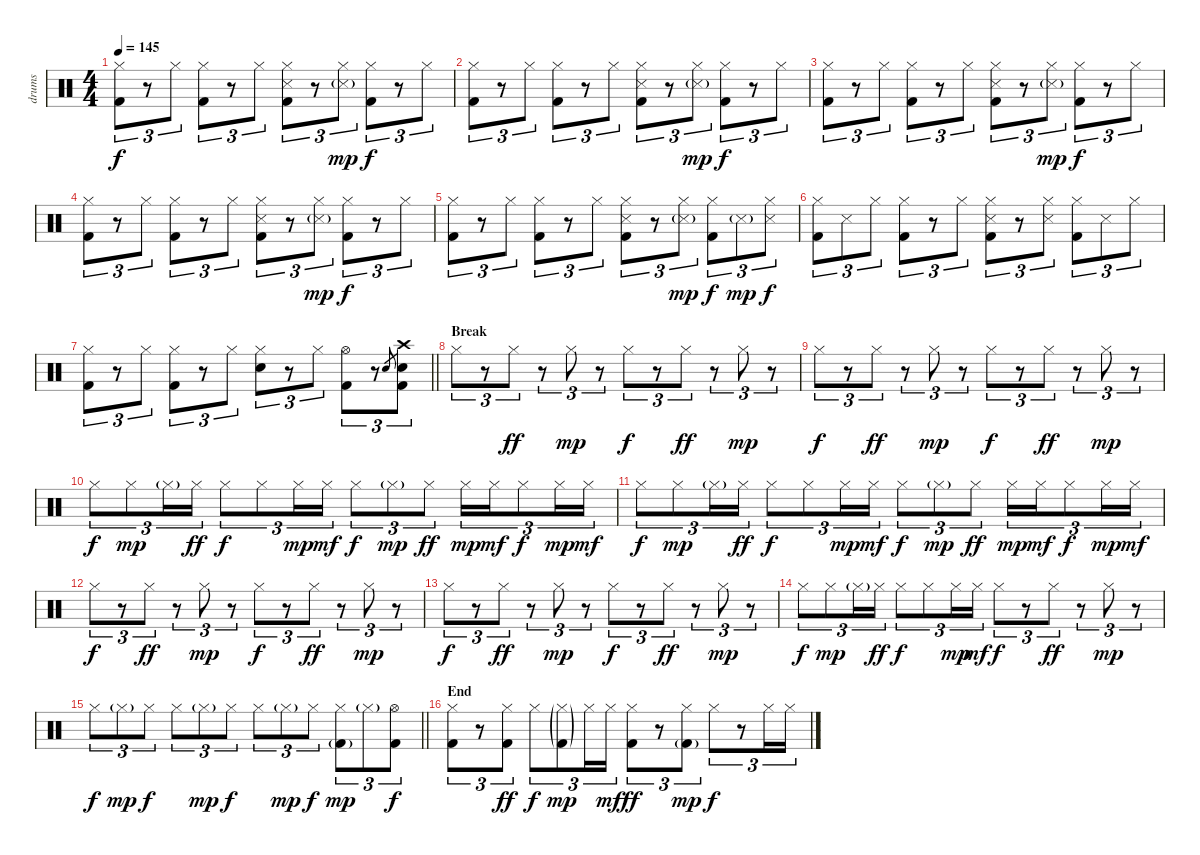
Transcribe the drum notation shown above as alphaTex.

\track ("drums" "drums") {instrument percussion}
\staff {score}
\articulation defaults
\ts (4 4)
\tempo 145
\clef neutral
\ks c
("Hi-Hat (closed)" "Kick (hit) 2").8{tu (3 2) dy f} r.8{tu (3 2)} "Hi-Hat (closed)".8{tu (3 2)} ("Hi-Hat (closed)" "Kick (hit) 2").8{tu (3 2)} r.8{tu (3 2)} "Hi-Hat (closed)".8{tu (3 2)} ("Hi-Hat (closed)" "Snare (side stick) 3" "Kick (hit) 2").8{tu (3 2)} r.8{tu (3 2)} ("Hi-Hat (closed)" "Snare (side stick) 3"{g}).8{tu (3 2) dy mp} ("Hi-Hat (closed)" "Kick (hit) 2").8{tu (3 2) dy f} r.8{tu (3 2)} "Hi-Hat (closed)".8{tu (3 2)} |
("Hi-Hat (closed)" "Kick (hit) 2").8{tu (3 2)} r.8{tu (3 2)} "Hi-Hat (closed)".8{tu (3 2)} ("Hi-Hat (closed)" "Kick (hit) 2").8{tu (3 2)} r.8{tu (3 2)} "Hi-Hat (closed)".8{tu (3 2)} ("Hi-Hat (closed)" "Snare (side stick) 3" "Kick (hit) 2").8{tu (3 2)} r.8{tu (3 2)} ("Hi-Hat (closed)" "Snare (side stick) 3"{g}).8{tu (3 2) dy mp} ("Hi-Hat (closed)" "Kick (hit) 2").8{tu (3 2) dy f} r.8{tu (3 2)} "Hi-Hat (closed)".8{tu (3 2)} |
("Hi-Hat (closed)" "Kick (hit) 2").8{tu (3 2)} r.8{tu (3 2)} "Hi-Hat (closed)".8{tu (3 2)} ("Hi-Hat (closed)" "Kick (hit) 2").8{tu (3 2)} r.8{tu (3 2)} "Hi-Hat (closed)".8{tu (3 2)} ("Hi-Hat (closed)" "Snare (side stick) 3" "Kick (hit) 2").8{tu (3 2)} r.8{tu (3 2)} ("Hi-Hat (closed)" "Snare (side stick) 3"{g}).8{tu (3 2) dy mp} ("Hi-Hat (closed)" "Kick (hit) 2").8{tu (3 2) dy f} r.8{tu (3 2)} "Hi-Hat (closed)".8{tu (3 2)} |
("Hi-Hat (closed)" "Kick (hit) 2").8{tu (3 2)} r.8{tu (3 2)} "Hi-Hat (closed)".8{tu (3 2)} ("Hi-Hat (closed)" "Kick (hit) 2").8{tu (3 2)} r.8{tu (3 2)} "Hi-Hat (closed)".8{tu (3 2)} ("Hi-Hat (closed)" "Snare (side stick) 3" "Kick (hit) 2").8{tu (3 2)} r.8{tu (3 2)} ("Hi-Hat (closed)" "Snare (side stick) 3"{g}).8{tu (3 2) dy mp} ("Hi-Hat (closed)" "Kick (hit) 2").8{tu (3 2) dy f} r.8{tu (3 2)} "Hi-Hat (closed)".8{tu (3 2)} |
("Hi-Hat (closed)" "Kick (hit) 2").8{tu (3 2)} r.8{tu (3 2)} "Hi-Hat (closed)".8{tu (3 2)} ("Hi-Hat (closed)" "Kick (hit) 2").8{tu (3 2)} r.8{tu (3 2)} "Hi-Hat (closed)".8{tu (3 2)} ("Hi-Hat (closed)" "Snare (side stick) 3" "Kick (hit) 2").8{tu (3 2)} r.8{tu (3 2)} ("Hi-Hat (closed)" "Snare (side stick) 3"{g}).8{tu (3 2) dy mp} ("Hi-Hat (closed)" "Kick (hit) 2").8{tu (3 2) dy f} "Snare (side stick) 3"{g}.8{tu (3 2) dy mp} ("Hi-Hat (closed)" "Snare (side stick) 3").8{tu (3 2) dy f} |
("Hi-Hat (closed)" "Kick (hit) 2").8{tu (3 2)} "Snare (side stick) 3".8{tu (3 2)} "Hi-Hat (closed)".8{tu (3 2)} ("Hi-Hat (closed)" "Kick (hit) 2").8{tu (3 2)} r.8{tu (3 2)} "Hi-Hat (closed)".8{tu (3 2)} ("Hi-Hat (closed)" "Snare (side stick) 3" "Kick (hit) 2").8{tu (3 2)} r.8{tu (3 2)} ("Hi-Hat (closed)" "Snare (side stick) 3").8{tu (3 2)} ("Hi-Hat (closed)" "Kick (hit) 2").8{tu (3 2)} "Snare (side stick) 3".8{tu (3 2)} "Hi-Hat (closed)".8{tu (3 2)} |
\barLineRight lightlight
("Hi-Hat (closed)" "Kick (hit) 2").8{tu (3 2)} r.8{tu (3 2)} "Hi-Hat (closed)".8{tu (3 2)} ("Hi-Hat (closed)" "Kick (hit) 2").8{tu (3 2)} r.8{tu (3 2)} "Hi-Hat (closed)".8{tu (3 2)} ("Hi-Hat (closed)" "Snare (hit) 2").8{tu (3 2)} r.8{tu (3 2)} "Hi-Hat (closed)".8{tu (3 2)} ("Hi-Hat (open)" "Kick (hit) 2").8{tu (3 2)} r.8{tu (3 2)} "Snare (hit) 2".8{gr} ("Crash high (hit)" "Snare (hit) 2" "Kick (hit) 2").8{tu (3 2)} |
\section ("" "Break")
"Hi-Hat (closed)".8{tu (3 2)} r.8{tu (3 2)} "Hi-Hat (closed)".8{tu (3 2) dy ff} r.8{tu (3 2)} "Hi-Hat (closed)".8{tu (3 2) dy mp} r.8{tu (3 2)} "Hi-Hat (closed)".8{tu (3 2) dy f} r.8{tu (3 2)} "Hi-Hat (closed)".8{tu (3 2) dy ff} r.8{tu (3 2)} "Hi-Hat (closed)".8{tu (3 2) dy mp} r.8{tu (3 2)} |
"Hi-Hat (closed)".8{tu (3 2) dy f} r.8{tu (3 2)} "Hi-Hat (closed)".8{tu (3 2) dy ff} r.8{tu (3 2)} "Hi-Hat (closed)".8{tu (3 2) dy mp} r.8{tu (3 2)} "Hi-Hat (closed)".8{tu (3 2) dy f} r.8{tu (3 2)} "Hi-Hat (closed)".8{tu (3 2) dy ff} r.8{tu (3 2)} "Hi-Hat (closed)".8{tu (3 2) dy mp} r.8{tu (3 2)} |
"Hi-Hat (closed)".8{tu (3 2) dy f} "Hi-Hat (closed)".8{tu (3 2) dy mp} "Hi-Hat (closed)"{g}.16{tu (3 2)} "Hi-Hat (closed)".16{tu (3 2) dy ff} "Hi-Hat (closed)".8{tu (3 2) dy f} "Hi-Hat (closed)".8{tu (3 2)} "Hi-Hat (closed)".16{tu (3 2) dy mp} "Hi-Hat (closed)".16{tu (3 2) dy mf} "Hi-Hat (closed)".8{tu (3 2) dy f} "Hi-Hat (closed)"{g}.8{tu (3 2) dy mp} "Hi-Hat (closed)".8{tu (3 2) dy ff} "Hi-Hat (closed)".16{tu (3 2) dy mp} "Hi-Hat (closed)".16{tu (3 2) dy mf} "Hi-Hat (closed)".8{tu (3 2) dy f} "Hi-Hat (closed)".16{tu (3 2) dy mp} "Hi-Hat (closed)".16{tu (3 2) dy mf} |
"Hi-Hat (closed)".8{tu (3 2) dy f} "Hi-Hat (closed)".8{tu (3 2) dy mp} "Hi-Hat (closed)"{g}.16{tu (3 2)} "Hi-Hat (closed)".16{tu (3 2) dy ff} "Hi-Hat (closed)".8{tu (3 2) dy f} "Hi-Hat (closed)".8{tu (3 2)} "Hi-Hat (closed)".16{tu (3 2) dy mp} "Hi-Hat (closed)".16{tu (3 2) dy mf} "Hi-Hat (closed)".8{tu (3 2) dy f} "Hi-Hat (closed)"{g}.8{tu (3 2) dy mp} "Hi-Hat (closed)".8{tu (3 2) dy ff} "Hi-Hat (closed)".16{tu (3 2) dy mp} "Hi-Hat (closed)".16{tu (3 2) dy mf} "Hi-Hat (closed)".8{tu (3 2) dy f} "Hi-Hat (closed)".16{tu (3 2) dy mp} "Hi-Hat (closed)".16{tu (3 2) dy mf} |
"Hi-Hat (closed)".8{tu (3 2) dy f} r.8{tu (3 2)} "Hi-Hat (closed)".8{tu (3 2) dy ff} r.8{tu (3 2)} "Hi-Hat (closed)".8{tu (3 2) dy mp} r.8{tu (3 2)} "Hi-Hat (closed)".8{tu (3 2) dy f} r.8{tu (3 2)} "Hi-Hat (closed)".8{tu (3 2) dy ff} r.8{tu (3 2)} "Hi-Hat (closed)".8{tu (3 2) dy mp} r.8{tu (3 2)} |
"Hi-Hat (closed)".8{tu (3 2) dy f} r.8{tu (3 2)} "Hi-Hat (closed)".8{tu (3 2) dy ff} r.8{tu (3 2)} "Hi-Hat (closed)".8{tu (3 2) dy mp} r.8{tu (3 2)} "Hi-Hat (closed)".8{tu (3 2) dy f} r.8{tu (3 2)} "Hi-Hat (closed)".8{tu (3 2) dy ff} r.8{tu (3 2)} "Hi-Hat (closed)".8{tu (3 2) dy mp} r.8{tu (3 2)} |
"Hi-Hat (closed)".8{tu (3 2) dy f} "Hi-Hat (closed)".8{tu (3 2) dy mp} "Hi-Hat (closed)"{g}.16{tu (3 2)} "Hi-Hat (closed)".16{tu (3 2) dy ff} "Hi-Hat (closed)".8{tu (3 2) dy f} "Hi-Hat (closed)".8{tu (3 2)} "Hi-Hat (closed)".16{tu (3 2) dy mp} "Hi-Hat (closed)".16{tu (3 2) dy mf} "Hi-Hat (closed)".8{tu (3 2) dy f} r.8{tu (3 2)} "Hi-Hat (closed)".8{tu (3 2) dy ff} r.8{tu (3 2)} "Hi-Hat (closed)".8{tu (3 2) dy mp} r.8{tu (3 2)} |
\barLineRight lightlight "Hi-Hat (closed)".8{tu (3 2) dy f} "Hi-Hat (closed)"{g}.8{tu (3 2) dy mp} "Hi-Hat (closed)".8{tu (3 2) dy f} "Hi-Hat (closed)".8{tu (3 2)} "Hi-Hat (closed)"{g}.8{tu (3 2) dy mp} "Hi-Hat (closed)".8{tu (3 2) dy f} "Hi-Hat (closed)".8{tu (3 2)} "Hi-Hat (closed)"{g}.8{tu (3 2) dy mp} "Hi-Hat (closed)".8{tu (3 2) dy f}
("Hi-Hat (closed)" "Kick (hit) 2"{g}).8{tu (3 2) dy mp} "Hi-Hat (closed)"{g}.8{tu (3 2)} ("Hi-Hat (open)" "Kick (hit) 2").8{tu (3 2) dy f} |
\section ("" "End")
("Hi-Hat (closed)" "Kick (hit) 2").8{tu (3 2)} r.8{tu (3 2)} ("Hi-Hat (closed)" "Kick (hit) 2").8{tu (3 2) dy ff} "Hi-Hat (closed)".8{tu (3 2) dy f} ("Hi-Hat (closed)"{g} "Kick (hit) 2"{g}).8{tu (3 2) dy mp} "Hi-Hat (closed)".16{tu (3 2)} "Hi-Hat (closed)".16{tu (3 2) dy mf} ("Hi-Hat (closed)" "Kick (hit) 2").8{tu (3 2) dy ff} r.8{tu (3 2)} ("Hi-Hat (closed)" "Kick (hit) 2"{g}).8{tu (3 2) dy mp} "Hi-Hat (closed)".8{tu (3 2) dy f} r.8{tu (3 2)} "Hi-Hat (closed)".16{tu (3 2)} "Hi-Hat (closed)".16{tu (3 2)}
